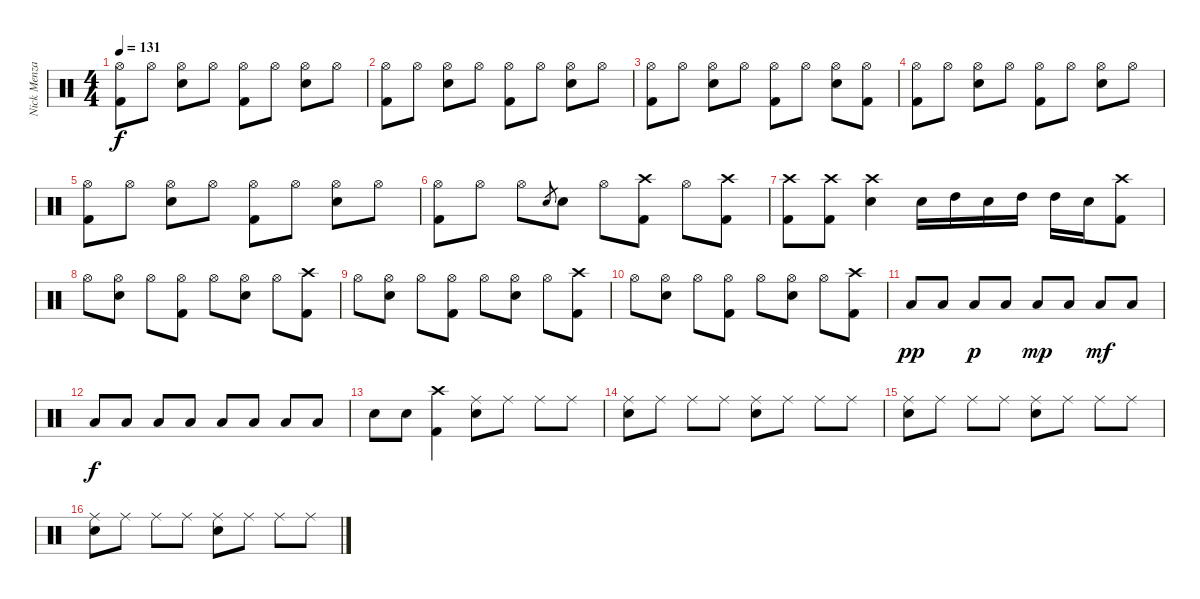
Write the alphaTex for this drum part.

\track ("Nick Menza" "Nick Menza") {instrument percussion}
\staff {score}
\articulation defaults
\ts (4 4)
\tempo 131
\clef neutral
\ks c
("Hi-Hat (open)" "Kick (hit) 2").8{dy f} "Hi-Hat (open)".8 ("Hi-Hat (open)" "Snare (hit) 2").8 "Hi-Hat (open)".8 ("Hi-Hat (open)" "Kick (hit) 2").8 "Hi-Hat (open)".8 ("Hi-Hat (open)" "Snare (hit) 2").8 "Hi-Hat (open)".8 |
("Hi-Hat (open)" "Kick (hit) 2").8 "Hi-Hat (open)".8 ("Hi-Hat (open)" "Snare (hit) 2").8 "Hi-Hat (open)".8 ("Hi-Hat (open)" "Kick (hit) 2").8 "Hi-Hat (open)".8 ("Hi-Hat (open)" "Snare (hit) 2").8 "Hi-Hat (open)".8 |
("Hi-Hat (open)" "Kick (hit) 2").8 "Hi-Hat (open)".8 ("Hi-Hat (open)" "Snare (hit) 2").8 "Hi-Hat (open)".8 ("Hi-Hat (open)" "Kick (hit) 2").8 "Hi-Hat (open)".8 ("Hi-Hat (open)" "Snare (hit) 2").8 ("Hi-Hat (open)" "Kick (hit) 2").8 |
("Hi-Hat (open)" "Kick (hit) 2").8 "Hi-Hat (open)".8 ("Hi-Hat (open)" "Snare (hit) 2").8 "Hi-Hat (open)".8 ("Hi-Hat (open)" "Kick (hit) 2").8 "Hi-Hat (open)".8 ("Hi-Hat (open)" "Snare (hit) 2").8 "Hi-Hat (open)".8 |
("Hi-Hat (open)" "Kick (hit) 2").8 "Hi-Hat (open)".8 ("Hi-Hat (open)" "Snare (hit) 2").8 "Hi-Hat (open)".8 ("Hi-Hat (open)" "Kick (hit) 2").8 "Hi-Hat (open)".8 ("Hi-Hat (open)" "Snare (hit) 2").8 "Hi-Hat (open)".8 |
("Hi-Hat (open)" "Kick (hit) 2").8 "Hi-Hat (open)".8 "Hi-Hat (open)".8 "Snare (hit) 2".8{gr} "Snare (hit) 2".8 "Hi-Hat (open)".8 ("Crash high (hit)" "Kick (hit) 2").8 "Hi-Hat (open)".8 ("Crash high (hit)" "Kick (hit) 2").8 |
("Crash high (hit)" "Kick (hit) 2").8 ("Crash high (hit)" "Kick (hit) 2").8 ("Crash high (hit)" "Snare (hit) 2").4 "Snare (hit) 2".16 "High Tom (hit)".16 "Snare (hit) 2".16 "High Tom (hit)".16 "High Tom (hit)".16 "Snare (hit) 2".16 ("Crash high (hit)" "Kick (hit) 2").8 |
"Hi-Hat (open)".8 ("Hi-Hat (open)" "Snare (hit) 2").8 "Hi-Hat (open)".8 ("Hi-Hat (open)" "Kick (hit) 2").8 "Hi-Hat (open)".8 ("Hi-Hat (open)" "Snare (hit) 2").8 "Hi-Hat (open)".8 ("Crash high (hit)" "Kick (hit) 2").8 |
"Hi-Hat (open)".8 ("Hi-Hat (open)" "Snare (hit) 2").8 "Hi-Hat (open)".8 ("Hi-Hat (open)" "Kick (hit) 2").8 "Hi-Hat (open)".8 ("Hi-Hat (open)" "Snare (hit) 2").8 "Hi-Hat (open)".8 ("Crash high (hit)" "Kick (hit) 2").8 |
"Hi-Hat (open)".8 ("Hi-Hat (open)" "Snare (hit) 2").8 "Hi-Hat (open)".8 ("Hi-Hat (open)" "Kick (hit) 2").8 "Hi-Hat (open)".8 ("Hi-Hat (open)" "Snare (hit) 2").8 "Hi-Hat (open)".8 ("Crash high (hit)" "Kick (hit) 2").8 |
"Low Tom (hit)".8{dy pp} "Low Tom (hit)".8 "Low Tom (hit)".8{dy p} "Low Tom (hit)".8 "Low Tom (hit)".8{dy mp} "Low Tom (hit)".8 "Low Tom (hit)".8{dy mf} "Low Tom (hit)".8 |
"Low Tom (hit)".8{dy f} "Low Tom (hit)".8 "Low Tom (hit)".8 "Low Tom (hit)".8 "Low Tom (hit)".8 "Low Tom (hit)".8 "Low Tom (hit)".8 "Low Tom (hit)".8 |
"Snare (hit) 2".8 "Snare (hit) 2".8 ("Crash high (hit)" "Kick (hit) 2").4 ("Ride (middle)" "Snare (hit) 2").8 "Ride (middle)".8 "Ride (middle)".8 "Ride (middle)".8 |
("Ride (middle)" "Snare (hit) 2").8 "Ride (middle)".8 "Ride (middle)".8 "Ride (middle)".8 ("Ride (middle)" "Snare (hit) 2").8 "Ride (middle)".8 "Ride (middle)".8 "Ride (middle)".8 |
("Ride (middle)" "Snare (hit) 2").8 "Ride (middle)".8 "Ride (middle)".8 "Ride (middle)".8 ("Ride (middle)" "Snare (hit) 2").8 "Ride (middle)".8 "Ride (middle)".8 "Ride (middle)".8 |
("Ride (middle)" "Snare (hit) 2").8 "Ride (middle)".8 "Ride (middle)".8 "Ride (middle)".8 ("Ride (middle)" "Snare (hit) 2").8 "Ride (middle)".8 "Ride (middle)".8 "Ride (middle)".8
